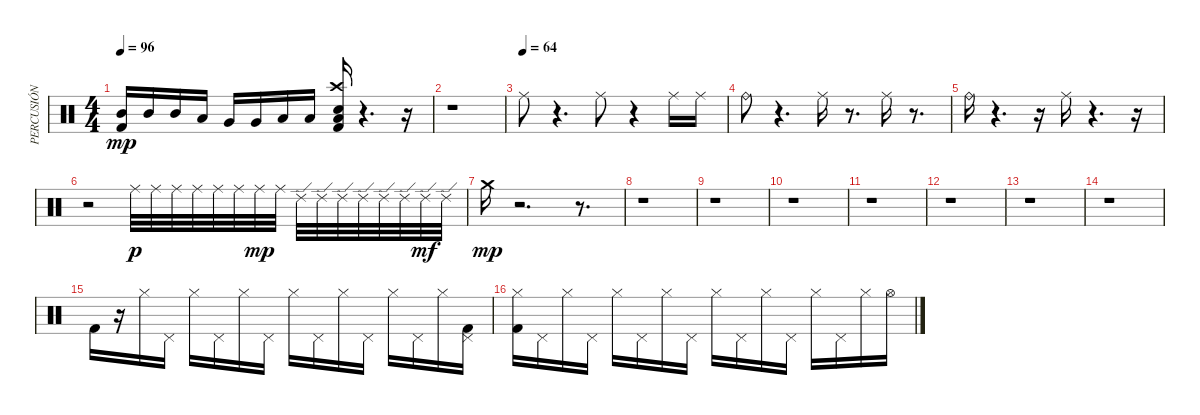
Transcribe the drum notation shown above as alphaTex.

\track ("PERCUSIÓN" "PERCUSIÓN") {instrument percussion}
\staff {score}
\articulation defaults
\ts (4 4)
\tempo 96
\clef neutral
\ks c
("Kick (hit) 2" "Mid Tom (hit)").16{dy mp} "Mid Tom (hit)".16 "Mid Tom (hit)".16 "Low Tom (hit)".16 "Very Low Tom (hit)".16 "Very Low Tom (hit)".16 "Low Tom (hit)".16 "Low Tom (hit)".16 ("Crash high (hit)" "Kick (hit) 2" "Snare (hit) 2" "Low Tom (hit)").16 r.4{d} r.16 |
r.1 |
\tempo (64)
"Ride (middle)".8 r.4{d} "Ride (middle)".8 r.4 "Ride (middle)".16 "Ride (middle)".16 |
"Ride (bell)".8 r.4{d} "Ride (middle)".16 r.8{d} "Ride (middle)".16 r.8{d} |
"Ride (bell)".16 r.4{d} r.16 "Ride (middle)".16 r.4{d} r.16 |
r.2 "Ride (middle)".32{dy p} "Ride (middle)".32 "Ride (middle)".32 "Ride (middle)".32 "Ride (middle)".32 "Ride (middle)".32 "Ride (middle)".32{dy mp} "Ride (middle)".32 "Ride (edge) 2".32 "Ride (edge) 2".32 "Ride (edge) 2".32 "Ride (edge) 2".32 "Ride (edge) 2".32 "Ride (edge) 2".32 "Ride (edge) 2".32{dy mf} "Ride (edge) 2".32 |
"Crash medium (hit)".16{dy mp} r.2{d} r.8{d} |
r.1 |
r.1 |
r.1 |
r.1 |
r.1 |
r.1 |
r.1 |
"Kick (hit) 2".16 r.16 "Hi-Hat (closed)".16 "Pedal Hi-Hat (hit)".16 "Hi-Hat (closed)".16 "Pedal Hi-Hat (hit)".16 "Hi-Hat (closed)".16 "Pedal Hi-Hat (hit)".16 "Hi-Hat (closed)".16 "Pedal Hi-Hat (hit)".16 "Hi-Hat (closed)".16 "Pedal Hi-Hat (hit)".16 "Hi-Hat (closed)".16 "Pedal Hi-Hat (hit)".16 "Hi-Hat (closed)".16 ("Pedal Hi-Hat (hit)" "Kick (hit) 2").16 |
("Kick (hit) 2" "Hi-Hat (closed)").16 "Pedal Hi-Hat (hit)".16 "Hi-Hat (closed)".16 "Pedal Hi-Hat (hit)".16 "Hi-Hat (closed)".16 "Pedal Hi-Hat (hit)".16 "Hi-Hat (closed)".16 "Pedal Hi-Hat (hit)".16 "Hi-Hat (closed)".16 "Pedal Hi-Hat (hit)".16 "Hi-Hat (closed)".16 "Pedal Hi-Hat (hit)".16 "Hi-Hat (closed)".16 "Pedal Hi-Hat (hit)".16 "Hi-Hat (closed)".16 "Hi-Hat (open)".16
